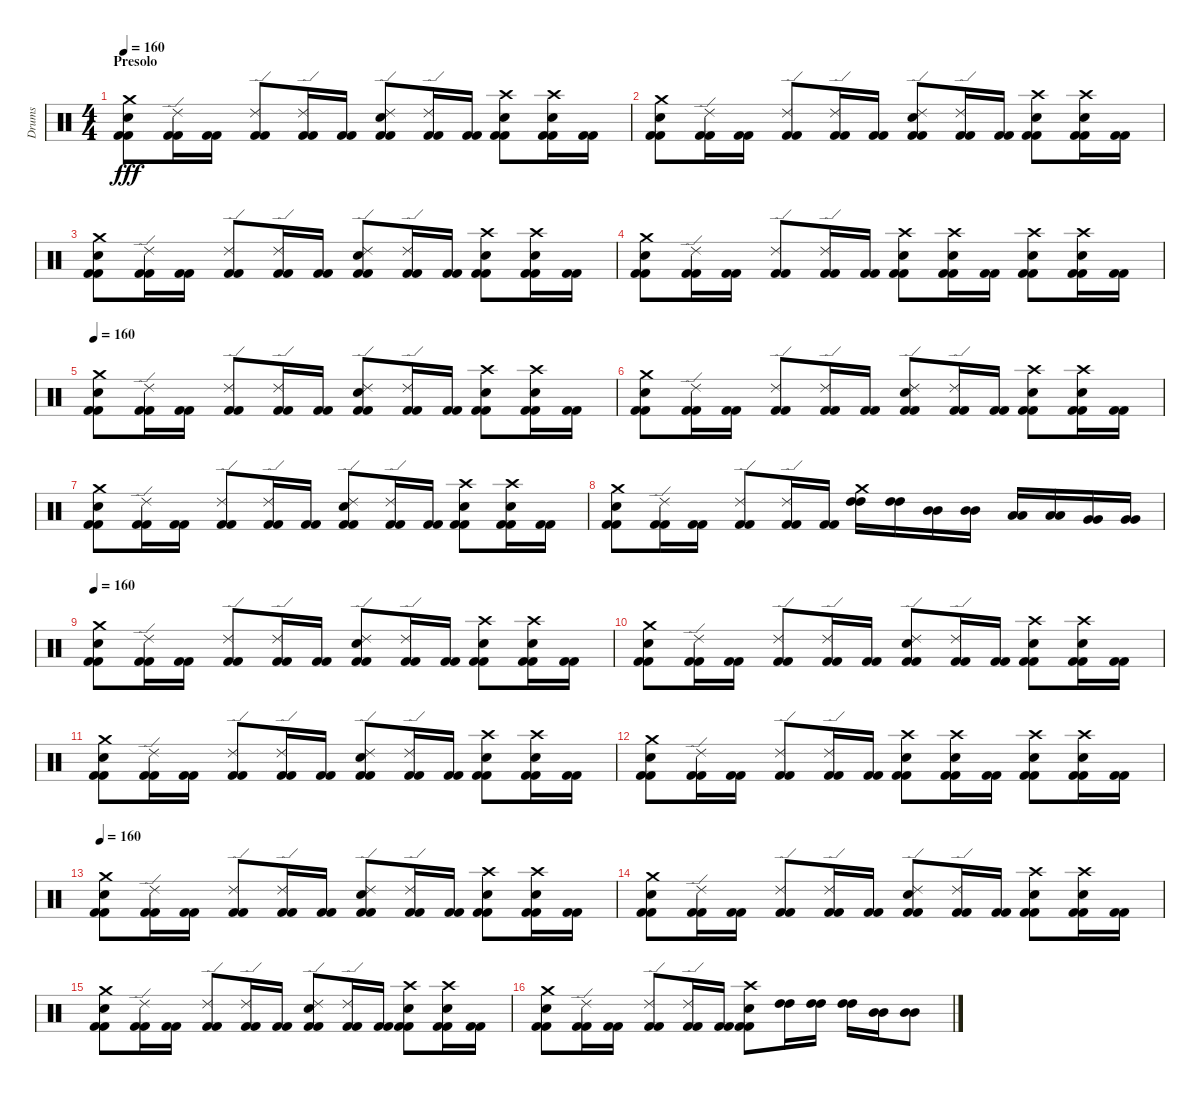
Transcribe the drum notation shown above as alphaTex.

\track ("Drums" "Drums") {instrument percussion}
\staff {score}
\articulation defaults
\ts (4 4)
\section ("" "Presolo")
\tempo 160
\clef neutral
\ks c
("Crash medium (hit)" "Electric Snare (hit)" "Kick (hit) 2" "Kick (hit) 2").8{dy fff} ("Ride (edge) 2" "Kick (hit) 2" "Kick (hit) 2").16 ("Kick (hit) 2" "Kick (hit) 2").16 ("Ride (edge) 2" "Kick (hit) 2" "Kick (hit) 2").8 ("Ride (edge) 2" "Kick (hit) 2" "Kick (hit) 2").16 ("Kick (hit) 2" "Kick (hit) 2").16 ("Ride (edge) 2" "Electric Snare (hit)" "Kick (hit) 2" "Kick (hit) 2").8 ("Ride (edge) 2" "Kick (hit) 2" "Kick (hit) 2").16 ("Kick (hit) 2" "Kick (hit) 2").16 ("Crash high (hit)" "Electric Snare (hit)" "Kick (hit) 2" "Kick (hit) 2").8 ("Crash high (hit)" "Electric Snare (hit)" "Kick (hit) 2" "Kick (hit) 2").16 ("Kick (hit) 2" "Kick (hit) 2").16 |
("Crash medium (hit)" "Electric Snare (hit)" "Kick (hit) 2" "Kick (hit) 2").8 ("Ride (edge) 2" "Kick (hit) 2" "Kick (hit) 2").16 ("Kick (hit) 2" "Kick (hit) 2").16 ("Ride (edge) 2" "Kick (hit) 2" "Kick (hit) 2").8 ("Ride (edge) 2" "Kick (hit) 2" "Kick (hit) 2").16 ("Kick (hit) 2" "Kick (hit) 2").16 ("Ride (edge) 2" "Electric Snare (hit)" "Kick (hit) 2" "Kick (hit) 2").8 ("Ride (edge) 2" "Kick (hit) 2" "Kick (hit) 2").16 ("Kick (hit) 2" "Kick (hit) 2").16 ("Crash high (hit)" "Electric Snare (hit)" "Kick (hit) 2" "Kick (hit) 2").8 ("Crash high (hit)" "Electric Snare (hit)" "Kick (hit) 2" "Kick (hit) 2").16 ("Kick (hit) 2" "Kick (hit) 2").16 |
("Crash medium (hit)" "Electric Snare (hit)" "Kick (hit) 2" "Kick (hit) 2").8 ("Ride (edge) 2" "Kick (hit) 2" "Kick (hit) 2").16 ("Kick (hit) 2" "Kick (hit) 2").16 ("Ride (edge) 2" "Kick (hit) 2" "Kick (hit) 2").8 ("Ride (edge) 2" "Kick (hit) 2" "Kick (hit) 2").16 ("Kick (hit) 2" "Kick (hit) 2").16 ("Ride (edge) 2" "Electric Snare (hit)" "Kick (hit) 2" "Kick (hit) 2").8 ("Ride (edge) 2" "Kick (hit) 2" "Kick (hit) 2").16 ("Kick (hit) 2" "Kick (hit) 2").16 ("Crash high (hit)" "Electric Snare (hit)" "Kick (hit) 2" "Kick (hit) 2").8 ("Crash high (hit)" "Electric Snare (hit)" "Kick (hit) 2" "Kick (hit) 2").16 ("Kick (hit) 2" "Kick (hit) 2").16 |
("Crash medium (hit)" "Electric Snare (hit)" "Kick (hit) 2" "Kick (hit) 2").8 ("Ride (edge) 2" "Kick (hit) 2" "Kick (hit) 2").16 ("Kick (hit) 2" "Kick (hit) 2").16 ("Ride (edge) 2" "Kick (hit) 2" "Kick (hit) 2").8 ("Ride (edge) 2" "Kick (hit) 2" "Kick (hit) 2").16 ("Kick (hit) 2" "Kick (hit) 2").16 ("Crash high (hit)" "Electric Snare (hit)" "Kick (hit) 2" "Kick (hit) 2").8 ("Crash high (hit)" "Electric Snare (hit)" "Kick (hit) 2" "Kick (hit) 2").16 ("Kick (hit) 2" "Kick (hit) 2").16 ("Crash high (hit)" "Electric Snare (hit)" "Kick (hit) 2" "Kick (hit) 2").8 ("Crash high (hit)" "Electric Snare (hit)" "Kick (hit) 2" "Kick (hit) 2").16 ("Kick (hit) 2" "Kick (hit) 2").16 |
\tempo 160
("Crash medium (hit)" "Electric Snare (hit)" "Kick (hit) 2" "Kick (hit) 2").8 ("Ride (edge) 2" "Kick (hit) 2" "Kick (hit) 2").16 ("Kick (hit) 2" "Kick (hit) 2").16 ("Ride (edge) 2" "Kick (hit) 2" "Kick (hit) 2").8 ("Ride (edge) 2" "Kick (hit) 2" "Kick (hit) 2").16 ("Kick (hit) 2" "Kick (hit) 2").16 ("Ride (edge) 2" "Electric Snare (hit)" "Kick (hit) 2" "Kick (hit) 2").8 ("Ride (edge) 2" "Kick (hit) 2" "Kick (hit) 2").16 ("Kick (hit) 2" "Kick (hit) 2").16 ("Crash high (hit)" "Electric Snare (hit)" "Kick (hit) 2" "Kick (hit) 2").8 ("Crash high (hit)" "Electric Snare (hit)" "Kick (hit) 2" "Kick (hit) 2").16 ("Kick (hit) 2" "Kick (hit) 2").16 |
("Crash medium (hit)" "Electric Snare (hit)" "Kick (hit) 2" "Kick (hit) 2").8 ("Ride (edge) 2" "Kick (hit) 2" "Kick (hit) 2").16 ("Kick (hit) 2" "Kick (hit) 2").16 ("Ride (edge) 2" "Kick (hit) 2" "Kick (hit) 2").8 ("Ride (edge) 2" "Kick (hit) 2" "Kick (hit) 2").16 ("Kick (hit) 2" "Kick (hit) 2").16 ("Ride (edge) 2" "Electric Snare (hit)" "Kick (hit) 2" "Kick (hit) 2").8 ("Ride (edge) 2" "Kick (hit) 2" "Kick (hit) 2").16 ("Kick (hit) 2" "Kick (hit) 2").16 ("Crash high (hit)" "Electric Snare (hit)" "Kick (hit) 2" "Kick (hit) 2").8 ("Crash high (hit)" "Electric Snare (hit)" "Kick (hit) 2" "Kick (hit) 2").16 ("Kick (hit) 2" "Kick (hit) 2").16 |
("Crash medium (hit)" "Electric Snare (hit)" "Kick (hit) 2" "Kick (hit) 2").8 ("Ride (edge) 2" "Kick (hit) 2" "Kick (hit) 2").16 ("Kick (hit) 2" "Kick (hit) 2").16 ("Ride (edge) 2" "Kick (hit) 2" "Kick (hit) 2").8 ("Ride (edge) 2" "Kick (hit) 2" "Kick (hit) 2").16 ("Kick (hit) 2" "Kick (hit) 2").16 ("Ride (edge) 2" "Electric Snare (hit)" "Kick (hit) 2" "Kick (hit) 2").8 ("Ride (edge) 2" "Kick (hit) 2" "Kick (hit) 2").16 ("Kick (hit) 2" "Kick (hit) 2").16 ("Crash high (hit)" "Electric Snare (hit)" "Kick (hit) 2" "Kick (hit) 2").8 ("Crash high (hit)" "Electric Snare (hit)" "Kick (hit) 2" "Kick (hit) 2").16 ("Kick (hit) 2" "Kick (hit) 2").16 |
("Crash medium (hit)" "Electric Snare (hit)" "Kick (hit) 2" "Kick (hit) 2").8 ("Ride (edge) 2" "Kick (hit) 2" "Kick (hit) 2").16 ("Kick (hit) 2" "Kick (hit) 2").16 ("Ride (edge) 2" "Kick (hit) 2" "Kick (hit) 2").8 ("Ride (edge) 2" "Kick (hit) 2" "Kick (hit) 2").16 ("Kick (hit) 2" "Kick (hit) 2").16 ("Crash medium (hit)" "High Tom (hit)" "High Tom (hit)").16 ("High Tom (hit)" "High Tom (hit)").16 ("Mid Tom (hit)" "Mid Tom (hit)").16 ("Mid Tom (hit)" "Mid Tom (hit)").16 ("Low Tom (hit)" "Low Tom (hit)").16 ("Low Tom (hit)" "Low Tom (hit)").16 ("Very Low Tom (hit)" "Very Low Tom (hit)").16 ("Very Low Tom (hit)" "Very Low Tom (hit)").16 |
\tempo 160
("Crash medium (hit)" "Electric Snare (hit)" "Kick (hit) 2" "Kick (hit) 2").8 ("Ride (edge) 2" "Kick (hit) 2" "Kick (hit) 2").16 ("Kick (hit) 2" "Kick (hit) 2").16 ("Ride (edge) 2" "Kick (hit) 2" "Kick (hit) 2").8 ("Ride (edge) 2" "Kick (hit) 2" "Kick (hit) 2").16 ("Kick (hit) 2" "Kick (hit) 2").16 ("Ride (edge) 2" "Electric Snare (hit)" "Kick (hit) 2" "Kick (hit) 2").8 ("Ride (edge) 2" "Kick (hit) 2" "Kick (hit) 2").16 ("Kick (hit) 2" "Kick (hit) 2").16 ("Crash high (hit)" "Electric Snare (hit)" "Kick (hit) 2" "Kick (hit) 2").8 ("Crash high (hit)" "Electric Snare (hit)" "Kick (hit) 2" "Kick (hit) 2").16 ("Kick (hit) 2" "Kick (hit) 2").16 |
("Crash medium (hit)" "Electric Snare (hit)" "Kick (hit) 2" "Kick (hit) 2").8 ("Ride (edge) 2" "Kick (hit) 2" "Kick (hit) 2").16 ("Kick (hit) 2" "Kick (hit) 2").16 ("Ride (edge) 2" "Kick (hit) 2" "Kick (hit) 2").8 ("Ride (edge) 2" "Kick (hit) 2" "Kick (hit) 2").16 ("Kick (hit) 2" "Kick (hit) 2").16 ("Ride (edge) 2" "Electric Snare (hit)" "Kick (hit) 2" "Kick (hit) 2").8 ("Ride (edge) 2" "Kick (hit) 2" "Kick (hit) 2").16 ("Kick (hit) 2" "Kick (hit) 2").16 ("Crash high (hit)" "Electric Snare (hit)" "Kick (hit) 2" "Kick (hit) 2").8 ("Crash high (hit)" "Electric Snare (hit)" "Kick (hit) 2" "Kick (hit) 2").16 ("Kick (hit) 2" "Kick (hit) 2").16 |
("Crash medium (hit)" "Electric Snare (hit)" "Kick (hit) 2" "Kick (hit) 2").8 ("Ride (edge) 2" "Kick (hit) 2" "Kick (hit) 2").16 ("Kick (hit) 2" "Kick (hit) 2").16 ("Ride (edge) 2" "Kick (hit) 2" "Kick (hit) 2").8 ("Ride (edge) 2" "Kick (hit) 2" "Kick (hit) 2").16 ("Kick (hit) 2" "Kick (hit) 2").16 ("Ride (edge) 2" "Electric Snare (hit)" "Kick (hit) 2" "Kick (hit) 2").8 ("Ride (edge) 2" "Kick (hit) 2" "Kick (hit) 2").16 ("Kick (hit) 2" "Kick (hit) 2").16 ("Crash high (hit)" "Electric Snare (hit)" "Kick (hit) 2" "Kick (hit) 2").8 ("Crash high (hit)" "Electric Snare (hit)" "Kick (hit) 2" "Kick (hit) 2").16 ("Kick (hit) 2" "Kick (hit) 2").16 |
("Crash medium (hit)" "Electric Snare (hit)" "Kick (hit) 2" "Kick (hit) 2").8 ("Ride (edge) 2" "Kick (hit) 2" "Kick (hit) 2").16 ("Kick (hit) 2" "Kick (hit) 2").16 ("Ride (edge) 2" "Kick (hit) 2" "Kick (hit) 2").8 ("Ride (edge) 2" "Kick (hit) 2" "Kick (hit) 2").16 ("Kick (hit) 2" "Kick (hit) 2").16 ("Crash high (hit)" "Electric Snare (hit)" "Kick (hit) 2" "Kick (hit) 2").8 ("Crash high (hit)" "Electric Snare (hit)" "Kick (hit) 2" "Kick (hit) 2").16 ("Kick (hit) 2" "Kick (hit) 2").16 ("Crash high (hit)" "Electric Snare (hit)" "Kick (hit) 2" "Kick (hit) 2").8 ("Crash high (hit)" "Electric Snare (hit)" "Kick (hit) 2" "Kick (hit) 2").16 ("Kick (hit) 2" "Kick (hit) 2").16 |
\tempo 160
("Crash medium (hit)" "Electric Snare (hit)" "Kick (hit) 2" "Kick (hit) 2").8 ("Ride (edge) 2" "Kick (hit) 2" "Kick (hit) 2").16 ("Kick (hit) 2" "Kick (hit) 2").16 ("Ride (edge) 2" "Kick (hit) 2" "Kick (hit) 2").8 ("Ride (edge) 2" "Kick (hit) 2" "Kick (hit) 2").16 ("Kick (hit) 2" "Kick (hit) 2").16 ("Ride (edge) 2" "Electric Snare (hit)" "Kick (hit) 2" "Kick (hit) 2").8 ("Ride (edge) 2" "Kick (hit) 2" "Kick (hit) 2").16 ("Kick (hit) 2" "Kick (hit) 2").16 ("Crash high (hit)" "Electric Snare (hit)" "Kick (hit) 2" "Kick (hit) 2").8 ("Crash high (hit)" "Electric Snare (hit)" "Kick (hit) 2" "Kick (hit) 2").16 ("Kick (hit) 2" "Kick (hit) 2").16 |
("Crash medium (hit)" "Electric Snare (hit)" "Kick (hit) 2" "Kick (hit) 2").8 ("Ride (edge) 2" "Kick (hit) 2" "Kick (hit) 2").16 ("Kick (hit) 2" "Kick (hit) 2").16 ("Ride (edge) 2" "Kick (hit) 2" "Kick (hit) 2").8 ("Ride (edge) 2" "Kick (hit) 2" "Kick (hit) 2").16 ("Kick (hit) 2" "Kick (hit) 2").16 ("Ride (edge) 2" "Electric Snare (hit)" "Kick (hit) 2" "Kick (hit) 2").8 ("Ride (edge) 2" "Kick (hit) 2" "Kick (hit) 2").16 ("Kick (hit) 2" "Kick (hit) 2").16 ("Crash high (hit)" "Electric Snare (hit)" "Kick (hit) 2" "Kick (hit) 2").8 ("Crash high (hit)" "Electric Snare (hit)" "Kick (hit) 2" "Kick (hit) 2").16 ("Kick (hit) 2" "Kick (hit) 2").16 |
("Crash medium (hit)" "Electric Snare (hit)" "Kick (hit) 2" "Kick (hit) 2").8 ("Ride (edge) 2" "Kick (hit) 2" "Kick (hit) 2").16 ("Kick (hit) 2" "Kick (hit) 2").16 ("Ride (edge) 2" "Kick (hit) 2" "Kick (hit) 2").8 ("Ride (edge) 2" "Kick (hit) 2" "Kick (hit) 2").16 ("Kick (hit) 2" "Kick (hit) 2").16 ("Ride (edge) 2" "Electric Snare (hit)" "Kick (hit) 2" "Kick (hit) 2").8 ("Ride (edge) 2" "Kick (hit) 2" "Kick (hit) 2").16 ("Kick (hit) 2" "Kick (hit) 2").16 ("Crash high (hit)" "Electric Snare (hit)" "Kick (hit) 2" "Kick (hit) 2").8 ("Crash high (hit)" "Electric Snare (hit)" "Kick (hit) 2" "Kick (hit) 2").16 ("Kick (hit) 2" "Kick (hit) 2").16 |
("Crash medium (hit)" "Electric Snare (hit)" "Kick (hit) 2" "Kick (hit) 2").8 ("Ride (edge) 2" "Kick (hit) 2" "Kick (hit) 2").16 ("Kick (hit) 2" "Kick (hit) 2").16 ("Ride (edge) 2" "Kick (hit) 2" "Kick (hit) 2").8 ("Ride (edge) 2" "Kick (hit) 2" "Kick (hit) 2").16 ("Kick (hit) 2" "Kick (hit) 2").16 ("Crash high (hit)" "Electric Snare (hit)" "Kick (hit) 2" "Kick (hit) 2").8 ("High Tom (hit)" "High Tom (hit)").16 ("High Tom (hit)" "High Tom (hit)").16 ("High Tom (hit)" "High Tom (hit)").16 ("Mid Tom (hit)" "Mid Tom (hit)").16 ("Mid Tom (hit)" "Mid Tom (hit)").8
